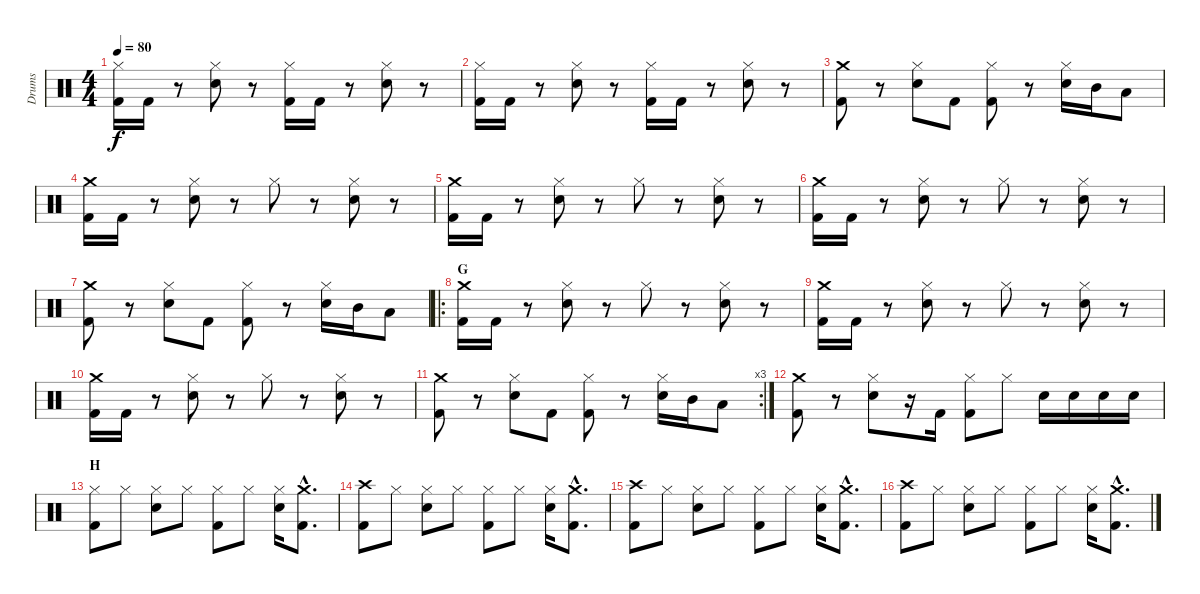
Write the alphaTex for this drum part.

\track ("Drums" "Drums") {instrument percussion}
\staff {score}
\articulation defaults
\ts (4 4)
\tempo 80
\clef neutral
\ks c
("Kick (hit) 2" "Hi-Hat (closed)").16{dy f} "Kick (hit) 2".16 r.8 ("Snare (hit) 2" "Hi-Hat (closed)").8 r.8 ("Kick (hit) 2" "Hi-Hat (closed)").16 "Kick (hit) 2".16 r.8 ("Snare (hit) 2" "Hi-Hat (closed)").8 r.8 |
("Kick (hit) 2" "Hi-Hat (closed)").16 "Kick (hit) 2".16 r.8 ("Snare (hit) 2" "Hi-Hat (closed)").8 r.8 ("Kick (hit) 2" "Hi-Hat (closed)").16 "Kick (hit) 2".16 r.8 ("Snare (hit) 2" "Hi-Hat (closed)").8 r.8 |
("Kick (hit) 2" "Crash medium (hit)").8 r.8 ("Snare (hit) 2" "Hi-Hat (closed)").8 "Kick (hit) 2".8 ("Kick (hit) 2" "Hi-Hat (closed)").8 r.8 ("Snare (hit) 2" "Hi-Hat (closed)").16 "Mid Tom (hit)".16 "Low Tom (hit)".8 |
("Kick (hit) 2" "Crash medium (hit)").16 "Kick (hit) 2".16 r.8 ("Snare (hit) 2" "Hi-Hat (closed)").8 r.8 "Hi-Hat (closed)".8 r.8 ("Snare (hit) 2" "Hi-Hat (closed)").8 r.8 |
("Kick (hit) 2" "Crash medium (hit)").16 "Kick (hit) 2".16 r.8 ("Snare (hit) 2" "Hi-Hat (closed)").8 r.8 "Hi-Hat (closed)".8 r.8 ("Snare (hit) 2" "Hi-Hat (closed)").8 r.8 |
("Kick (hit) 2" "Crash medium (hit)").16 "Kick (hit) 2".16 r.8 ("Snare (hit) 2" "Hi-Hat (closed)").8 r.8 "Hi-Hat (closed)".8 r.8 ("Snare (hit) 2" "Hi-Hat (closed)").8 r.8 |
("Kick (hit) 2" "Crash medium (hit)").8 r.8 ("Snare (hit) 2" "Hi-Hat (closed)").8 "Kick (hit) 2".8 ("Kick (hit) 2" "Hi-Hat (closed)").8 r.8 ("Snare (hit) 2" "Hi-Hat (closed)").16 "Mid Tom (hit)".16 "Low Tom (hit)".8 |
\ro
\section ("" "G")
("Kick (hit) 2" "Crash medium (hit)").16 "Kick (hit) 2".16 r.8 ("Snare (hit) 2" "Hi-Hat (closed)").8 r.8 "Hi-Hat (closed)".8 r.8 ("Snare (hit) 2" "Hi-Hat (closed)").8 r.8 |
("Kick (hit) 2" "Crash medium (hit)").16 "Kick (hit) 2".16 r.8 ("Snare (hit) 2" "Hi-Hat (closed)").8 r.8 "Hi-Hat (closed)".8 r.8 ("Snare (hit) 2" "Hi-Hat (closed)").8 r.8 |
("Kick (hit) 2" "Crash medium (hit)").16 "Kick (hit) 2".16 r.8 ("Snare (hit) 2" "Hi-Hat (closed)").8 r.8 "Hi-Hat (closed)".8 r.8 ("Snare (hit) 2" "Hi-Hat (closed)").8 r.8 |
\rc 3
("Kick (hit) 2" "Crash medium (hit)").8 r.8 ("Snare (hit) 2" "Hi-Hat (closed)").8 "Kick (hit) 2".8 ("Kick (hit) 2" "Hi-Hat (closed)").8 r.8 ("Snare (hit) 2" "Hi-Hat (closed)").16 "Mid Tom (hit)".16 "Low Tom (hit)".8 |
("Kick (hit) 2" "Crash medium (hit)").8 r.8 ("Snare (hit) 2" "Hi-Hat (closed)").8 r.16 "Kick (hit) 2".16 ("Kick (hit) 2" "Hi-Hat (closed)").8 "Hi-Hat (closed)".8 "Snare (hit) 2".16 "Snare (hit) 2".16 "Snare (hit) 2".16 "Snare (hit) 2".16 |
\section ("" "H")
("Kick (hit) 2" "Hi-Hat (closed)").8 "Hi-Hat (closed)".8 ("Snare (hit) 2" "Hi-Hat (closed)").8 "Hi-Hat (closed)".8 ("Kick (hit) 2" "Hi-Hat (closed)").8 "Hi-Hat (closed)".8 ("Snare (hit) 2" "Hi-Hat (closed)").16 ("Kick (hit) 2"{hac} "Crash medium (hit)"{hac}).8{d} |
("Kick (hit) 2" "Crash high (hit)").8 "Hi-Hat (closed)".8 ("Snare (hit) 2" "Hi-Hat (closed)").8 "Hi-Hat (closed)".8 ("Kick (hit) 2" "Hi-Hat (closed)").8 "Hi-Hat (closed)".8 ("Snare (hit) 2" "Hi-Hat (closed)").16 ("Kick (hit) 2"{hac} "Crash medium (hit)"{hac}).8{d} |
("Kick (hit) 2" "Crash high (hit)").8 "Hi-Hat (closed)".8 ("Snare (hit) 2" "Hi-Hat (closed)").8 "Hi-Hat (closed)".8 ("Kick (hit) 2" "Hi-Hat (closed)").8 "Hi-Hat (closed)".8 ("Snare (hit) 2" "Hi-Hat (closed)").16 ("Kick (hit) 2"{hac} "Crash medium (hit)"{hac}).8{d} |
("Kick (hit) 2" "Crash high (hit)").8 "Hi-Hat (closed)".8 ("Snare (hit) 2" "Hi-Hat (closed)").8 "Hi-Hat (closed)".8 ("Kick (hit) 2" "Hi-Hat (closed)").8 "Hi-Hat (closed)".8 ("Snare (hit) 2" "Hi-Hat (closed)").16 ("Kick (hit) 2"{hac} "Crash medium (hit)"{hac}).8{d}
